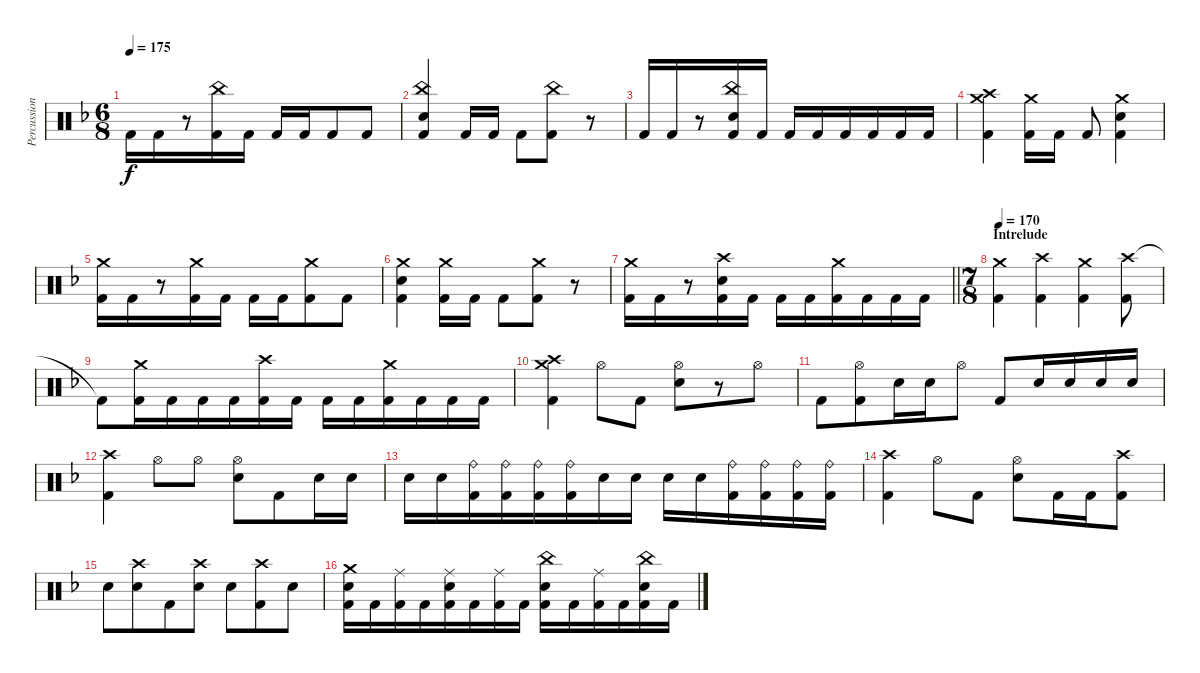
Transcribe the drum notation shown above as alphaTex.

\track ("Percussion" "Percussion") {instrument percussion}
\staff {score}
\articulation defaults
\ts (6 8)
\tempo 175
\clef neutral
\ks dminor "Kick (hit) 2".16{dy f} "Kick (hit) 2".16
r.8 ("China (hit)" "Kick (hit) 2").16 "Kick (hit) 2".16 "Kick (hit) 2".16 "Kick (hit) 2".16 "Kick (hit) 2".8 "Kick (hit) 2".8 |
("China (hit)" "Electric Snare (hit)" "Kick (hit) 2").4 "Kick (hit) 2".16 "Kick (hit) 2".16 "Kick (hit) 2".8 ("China (hit)" "Kick (hit) 2").8 r.8 |
"Kick (hit) 2".16 "Kick (hit) 2".16 r.8 ("China (hit)" "Electric Snare (hit)" "Kick (hit) 2").16 "Kick (hit) 2".16 "Kick (hit) 2".16 "Kick (hit) 2".16 "Kick (hit) 2".16 "Kick (hit) 2".16 "Kick (hit) 2".16 "Kick (hit) 2".16 |
("Crash medium (hit)" "Crash high (hit)" "Kick (hit) 2").4 ("Crash medium (hit)" "Kick (hit) 2").16 "Kick (hit) 2".16 "Kick (hit) 2".8 ("Crash medium (hit)" "Electric Snare (hit)" "Kick (hit) 2").4 |
("Crash medium (hit)" "Kick (hit) 2").16 "Kick (hit) 2".16 r.8 ("Crash medium (hit)" "Kick (hit) 2").16 "Kick (hit) 2".16 "Kick (hit) 2".16 "Kick (hit) 2".16 ("Crash medium (hit)" "Kick (hit) 2").8 "Kick (hit) 2".8 |
("Crash medium (hit)" "Electric Snare (hit)" "Kick (hit) 2").4 ("Crash medium (hit)" "Kick (hit) 2").16 "Kick (hit) 2".16 "Kick (hit) 2".8 ("Crash medium (hit)" "Kick (hit) 2").8 r.8 |
\barLineRight lightlight
("Crash medium (hit)" "Kick (hit) 2").16 "Kick (hit) 2".16 r.8 ("Crash high (hit)" "Electric Snare (hit)" "Kick (hit) 2").16 "Kick (hit) 2".16 "Kick (hit) 2".16 "Kick (hit) 2".16 ("Crash medium (hit)" "Kick (hit) 2").16 "Kick (hit) 2".16 "Kick (hit) 2".16 "Kick (hit) 2".16 |
\ts (7 8)
\section ("" "Intrelude")
\tempo 170
("Crash medium (hit)" "Kick (hit) 2").4 ("Crash high (hit)" "Kick (hit) 2").4 ("Crash medium (hit)" "Kick (hit) 2").4 ("Crash high (hit)" "Kick (hit) 2").8 |
"Kick (hit) 2"{t}.8 ("Crash medium (hit)" "Kick (hit) 2").16 "Kick (hit) 2".16 "Kick (hit) 2".16 "Kick (hit) 2".16 ("Crash high (hit)" "Kick (hit) 2").16 "Kick (hit) 2".16 "Kick (hit) 2".16 "Kick (hit) 2".16 ("Crash medium (hit)" "Kick (hit) 2").16 "Kick (hit) 2".16 "Kick (hit) 2".16 "Kick (hit) 2".16 |
("Crash medium (hit)" "Crash high (hit)" "Kick (hit) 2").4 "Hi-Hat (open)".8 "Kick (hit) 2".8 ("Hi-Hat (open)" "Electric Snare (hit)").8 r.8 "Hi-Hat (open)".8 |
"Kick (hit) 2".8 ("Hi-Hat (open)" "Kick (hit) 2").8 "Electric Snare (hit)".16 "Electric Snare (hit)".16 "Hi-Hat (open)".8 "Kick (hit) 2".8 "Electric Snare (hit)".16 "Electric Snare (hit)".16 "Electric Snare (hit)".16 "Electric Snare (hit)".16 |
("Crash high (hit)" "Kick (hit) 2").4 "Hi-Hat (open)".8 "Hi-Hat (open)".8 ("Hi-Hat (open)" "Electric Snare (hit)").8 "Kick (hit) 2".8 "Electric Snare (hit)".16 "Electric Snare (hit)".16 |
"Electric Snare (hit)".16 "Electric Snare (hit)".16 ("Ride (bell)" "Kick (hit) 2").16 ("Ride (bell)" "Kick (hit) 2").16 ("Ride (bell)" "Kick (hit) 2").16 ("Ride (bell)" "Kick (hit) 2").16 "Electric Snare (hit)".16 "Electric Snare (hit)".16 "Electric Snare (hit)".16 "Electric Snare (hit)".16 ("Ride (bell)" "Kick (hit) 2").16 ("Ride (bell)" "Kick (hit) 2").16 ("Ride (bell)" "Kick (hit) 2").16 ("Ride (bell)" "Kick (hit) 2").16 |
("Crash high (hit)" "Kick (hit) 2").4 "Hi-Hat (open)".8 "Kick (hit) 2".8 ("Hi-Hat (open)" "Electric Snare (hit)").8 "Kick (hit) 2".16 "Kick (hit) 2".16 ("Crash high (hit)" "Kick (hit) 2").8 |
"Electric Snare (hit)".8 ("Crash high (hit)" "Electric Snare (hit)").8 "Kick (hit) 2".8 ("Crash high (hit)" "Electric Snare (hit)").8 "Electric Snare (hit)".8 ("Crash high (hit)" "Kick (hit) 2").8 "Electric Snare (hit)".8 |
("Crash medium (hit)" "Electric Snare (hit)" "Kick (hit) 2").16 "Kick (hit) 2".16 ("Ride (middle)" "Kick (hit) 2").16 "Kick (hit) 2".16 ("Ride (middle)" "Electric Snare (hit)" "Kick (hit) 2").16 "Kick (hit) 2".16 ("Ride (middle)" "Kick (hit) 2").16 "Kick (hit) 2".16 ("China (hit)" "Electric Snare (hit)" "Kick (hit) 2").16 "Kick (hit) 2".16 ("Ride (middle)" "Kick (hit) 2").16 "Kick (hit) 2".16 ("China (hit)" "Electric Snare (hit)" "Kick (hit) 2").16 "Kick (hit) 2".16
